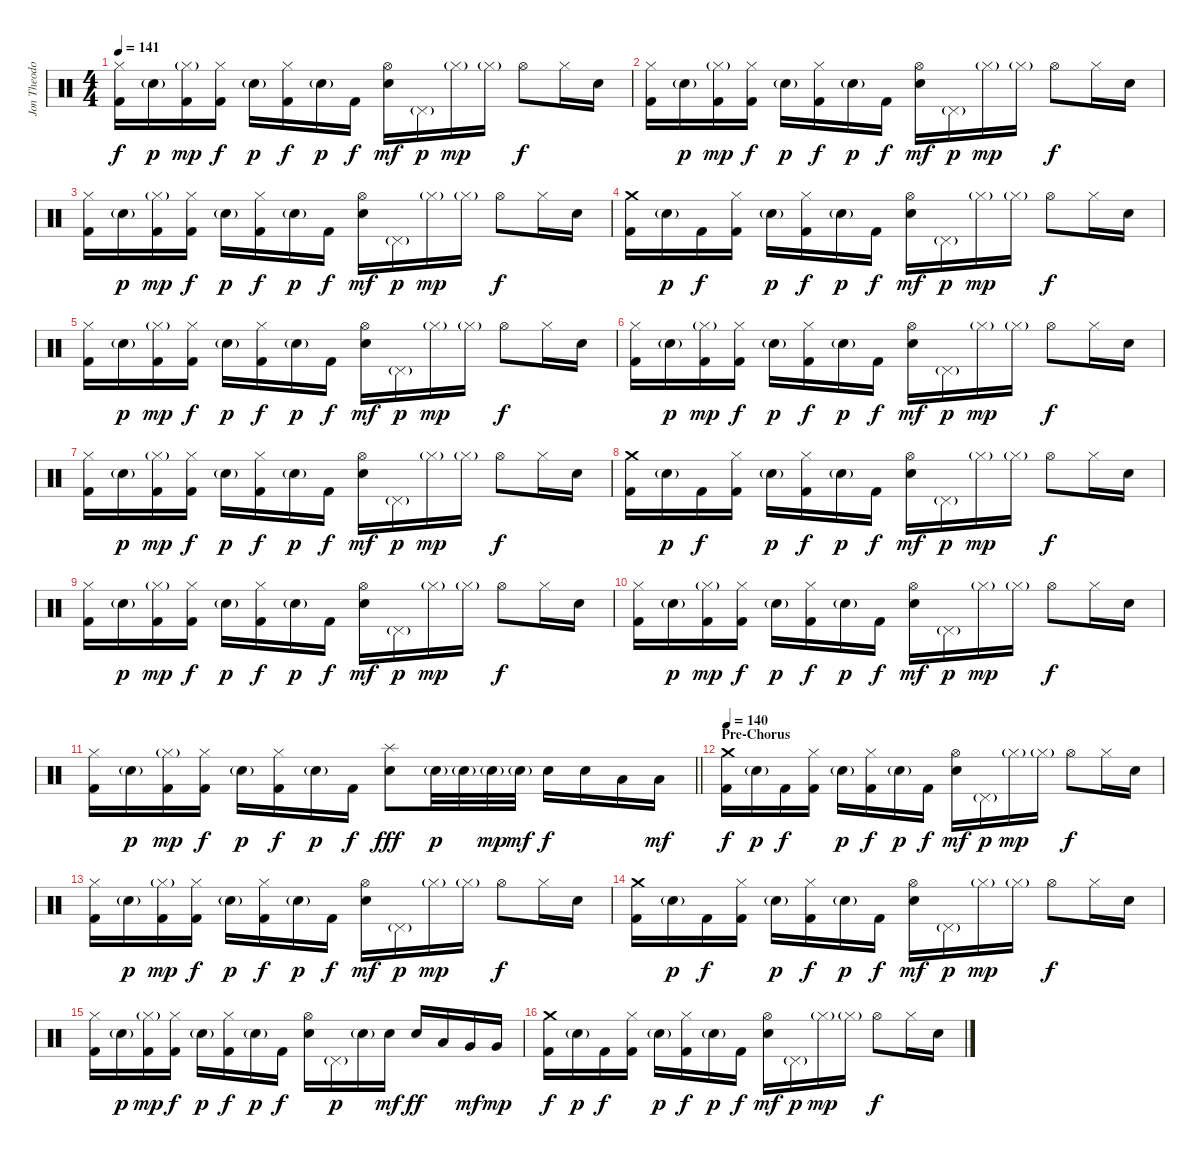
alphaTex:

\track ("Jon Theodore - Drums" "Jon Theodo") {instrument percussion}
\staff {score}
\articulation defaults
\ts (4 4)
\tempo 141
\clef neutral
\ks c
("Hi-Hat (closed)" "Kick (hit) 2").16{dy f} "Electric Snare (hit)"{g}.16{dy p} ("Hi-Hat (closed)"{g} "Kick (hit) 2").16{dy mp} ("Hi-Hat (closed)" "Kick (hit) 2").16{dy f} "Electric Snare (hit)"{g}.16{dy p} ("Hi-Hat (closed)" "Kick (hit) 2").16{dy f} "Electric Snare (hit)"{g}.16{dy p} "Kick (hit) 2".16{dy f} ("Hi-Hat (open)" "Electric Snare (hit)").16{dy mf} "Pedal Hi-Hat (hit)"{g}.16{dy p} "Hi-Hat (closed)"{g}.16{dy mp} "Hi-Hat (closed)"{g}.16 "Hi-Hat (open)".8{dy f} "Hi-Hat (closed)".16 "Electric Snare (hit)".16 |
("Hi-Hat (closed)" "Kick (hit) 2").16 "Electric Snare (hit)"{g}.16{dy p} ("Hi-Hat (closed)"{g} "Kick (hit) 2").16{dy mp} ("Hi-Hat (closed)" "Kick (hit) 2").16{dy f} "Electric Snare (hit)"{g}.16{dy p} ("Hi-Hat (closed)" "Kick (hit) 2").16{dy f} "Electric Snare (hit)"{g}.16{dy p} "Kick (hit) 2".16{dy f} ("Hi-Hat (open)" "Electric Snare (hit)").16{dy mf} "Pedal Hi-Hat (hit)"{g}.16{dy p} "Hi-Hat (closed)"{g}.16{dy mp} "Hi-Hat (closed)"{g}.16 "Hi-Hat (open)".8{dy f} "Hi-Hat (closed)".16 "Electric Snare (hit)".16 |
("Hi-Hat (closed)" "Kick (hit) 2").16 "Electric Snare (hit)"{g}.16{dy p} ("Hi-Hat (closed)"{g} "Kick (hit) 2").16{dy mp} ("Hi-Hat (closed)" "Kick (hit) 2").16{dy f} "Electric Snare (hit)"{g}.16{dy p} ("Hi-Hat (closed)" "Kick (hit) 2").16{dy f} "Electric Snare (hit)"{g}.16{dy p} "Kick (hit) 2".16{dy f} ("Hi-Hat (open)" "Electric Snare (hit)").16{dy mf} "Pedal Hi-Hat (hit)"{g}.16{dy p} "Hi-Hat (closed)"{g}.16{dy mp} "Hi-Hat (closed)"{g}.16 "Hi-Hat (open)".8{dy f} "Hi-Hat (closed)".16 "Electric Snare (hit)".16 |
("Crash medium (hit)" "Kick (hit) 2").16 "Electric Snare (hit)"{g}.16{dy p} "Kick (hit) 2".16{dy f} ("Hi-Hat (closed)" "Kick (hit) 2").16 "Electric Snare (hit)"{g}.16{dy p} ("Hi-Hat (closed)" "Kick (hit) 2").16{dy f} "Electric Snare (hit)"{g}.16{dy p} "Kick (hit) 2".16{dy f} ("Hi-Hat (open)" "Electric Snare (hit)").16{dy mf} "Pedal Hi-Hat (hit)"{g}.16{dy p} "Hi-Hat (closed)"{g}.16{dy mp} "Hi-Hat (closed)"{g}.16 "Hi-Hat (open)".8{dy f} "Hi-Hat (closed)".16 "Electric Snare (hit)".16 |
("Hi-Hat (closed)" "Kick (hit) 2").16 "Electric Snare (hit)"{g}.16{dy p} ("Hi-Hat (closed)"{g} "Kick (hit) 2").16{dy mp} ("Hi-Hat (closed)" "Kick (hit) 2").16{dy f} "Electric Snare (hit)"{g}.16{dy p} ("Hi-Hat (closed)" "Kick (hit) 2").16{dy f} "Electric Snare (hit)"{g}.16{dy p} "Kick (hit) 2".16{dy f} ("Hi-Hat (open)" "Electric Snare (hit)").16{dy mf} "Pedal Hi-Hat (hit)"{g}.16{dy p} "Hi-Hat (closed)"{g}.16{dy mp} "Hi-Hat (closed)"{g}.16 "Hi-Hat (open)".8{dy f} "Hi-Hat (closed)".16 "Electric Snare (hit)".16 |
("Hi-Hat (closed)" "Kick (hit) 2").16 "Electric Snare (hit)"{g}.16{dy p} ("Hi-Hat (closed)"{g} "Kick (hit) 2").16{dy mp} ("Hi-Hat (closed)" "Kick (hit) 2").16{dy f} "Electric Snare (hit)"{g}.16{dy p} ("Hi-Hat (closed)" "Kick (hit) 2").16{dy f} "Electric Snare (hit)"{g}.16{dy p} "Kick (hit) 2".16{dy f} ("Hi-Hat (open)" "Electric Snare (hit)").16{dy mf} "Pedal Hi-Hat (hit)"{g}.16{dy p} "Hi-Hat (closed)"{g}.16{dy mp} "Hi-Hat (closed)"{g}.16 "Hi-Hat (open)".8{dy f} "Hi-Hat (closed)".16 "Electric Snare (hit)".16 |
("Hi-Hat (closed)" "Kick (hit) 2").16 "Electric Snare (hit)"{g}.16{dy p} ("Hi-Hat (closed)"{g} "Kick (hit) 2").16{dy mp} ("Hi-Hat (closed)" "Kick (hit) 2").16{dy f} "Electric Snare (hit)"{g}.16{dy p} ("Hi-Hat (closed)" "Kick (hit) 2").16{dy f} "Electric Snare (hit)"{g}.16{dy p} "Kick (hit) 2".16{dy f} ("Hi-Hat (open)" "Electric Snare (hit)").16{dy mf} "Pedal Hi-Hat (hit)"{g}.16{dy p} "Hi-Hat (closed)"{g}.16{dy mp} "Hi-Hat (closed)"{g}.16 "Hi-Hat (open)".8{dy f} "Hi-Hat (closed)".16 "Electric Snare (hit)".16 |
("Crash medium (hit)" "Kick (hit) 2").16 "Electric Snare (hit)"{g}.16{dy p} "Kick (hit) 2".16{dy f} ("Hi-Hat (closed)" "Kick (hit) 2").16 "Electric Snare (hit)"{g}.16{dy p} ("Hi-Hat (closed)" "Kick (hit) 2").16{dy f} "Electric Snare (hit)"{g}.16{dy p} "Kick (hit) 2".16{dy f} ("Hi-Hat (open)" "Electric Snare (hit)").16{dy mf} "Pedal Hi-Hat (hit)"{g}.16{dy p} "Hi-Hat (closed)"{g}.16{dy mp} "Hi-Hat (closed)"{g}.16 "Hi-Hat (open)".8{dy f} "Hi-Hat (closed)".16 "Electric Snare (hit)".16 |
("Hi-Hat (closed)" "Kick (hit) 2").16 "Electric Snare (hit)"{g}.16{dy p} ("Hi-Hat (closed)"{g} "Kick (hit) 2").16{dy mp} ("Hi-Hat (closed)" "Kick (hit) 2").16{dy f} "Electric Snare (hit)"{g}.16{dy p} ("Hi-Hat (closed)" "Kick (hit) 2").16{dy f} "Electric Snare (hit)"{g}.16{dy p} "Kick (hit) 2".16{dy f} ("Hi-Hat (open)" "Electric Snare (hit)").16{dy mf} "Pedal Hi-Hat (hit)"{g}.16{dy p} "Hi-Hat (closed)"{g}.16{dy mp} "Hi-Hat (closed)"{g}.16 "Hi-Hat (open)".8{dy f} "Hi-Hat (closed)".16 "Electric Snare (hit)".16 |
("Hi-Hat (closed)" "Kick (hit) 2").16 "Electric Snare (hit)"{g}.16{dy p} ("Hi-Hat (closed)"{g} "Kick (hit) 2").16{dy mp} ("Hi-Hat (closed)" "Kick (hit) 2").16{dy f} "Electric Snare (hit)"{g}.16{dy p} ("Hi-Hat (closed)" "Kick (hit) 2").16{dy f} "Electric Snare (hit)"{g}.16{dy p} "Kick (hit) 2".16{dy f} ("Hi-Hat (open)" "Electric Snare (hit)").16{dy mf} "Pedal Hi-Hat (hit)"{g}.16{dy p} "Hi-Hat (closed)"{g}.16{dy mp} "Hi-Hat (closed)"{g}.16 "Hi-Hat (open)".8{dy f} "Hi-Hat (closed)".16 "Electric Snare (hit)".16 |
\barLineRight lightlight
("Hi-Hat (closed)" "Kick (hit) 2").16 "Electric Snare (hit)"{g}.16{dy p} ("Hi-Hat (closed)"{g} "Kick (hit) 2").16{dy mp} ("Hi-Hat (closed)" "Kick (hit) 2").16{dy f} "Electric Snare (hit)"{g}.16{dy p} ("Hi-Hat (closed)" "Kick (hit) 2").16{dy f} "Electric Snare (hit)"{g}.16{dy p} "Kick (hit) 2".16{dy f} ("Splash (hit)" "Electric Snare (hit)").8{dy fff} "Electric Snare (hit)"{g}.32{dy p} "Electric Snare (hit)"{g}.32 "Electric Snare (hit)"{g}.32{dy mp} "Electric Snare (hit)"{g}.32{dy mf} "Electric Snare (hit)".16{dy f} "Electric Snare (hit)".16 "Low Tom (hit)".16 "Low Tom (hit)".16{dy mf} |
\section ("" "Pre-Chorus")
\tempo 140
("Crash medium (hit)" "Kick (hit) 2").16{dy f} "Electric Snare (hit)"{g}.16{dy p} "Kick (hit) 2".16{dy f} ("Hi-Hat (closed)" "Kick (hit) 2").16 "Electric Snare (hit)"{g}.16{dy p} ("Hi-Hat (closed)" "Kick (hit) 2").16{dy f} "Electric Snare (hit)"{g}.16{dy p} "Kick (hit) 2".16{dy f} ("Hi-Hat (open)" "Electric Snare (hit)").16{dy mf} "Pedal Hi-Hat (hit)"{g}.16{dy p} "Hi-Hat (closed)"{g}.16{dy mp} "Hi-Hat (closed)"{g}.16 "Hi-Hat (open)".8{dy f} "Hi-Hat (closed)".16 "Electric Snare (hit)".16 |
("Hi-Hat (closed)" "Kick (hit) 2").16 "Electric Snare (hit)"{g}.16{dy p} ("Hi-Hat (closed)"{g} "Kick (hit) 2").16{dy mp} ("Hi-Hat (closed)" "Kick (hit) 2").16{dy f} "Electric Snare (hit)"{g}.16{dy p} ("Hi-Hat (closed)" "Kick (hit) 2").16{dy f} "Electric Snare (hit)"{g}.16{dy p} "Kick (hit) 2".16{dy f} ("Hi-Hat (open)" "Electric Snare (hit)").16{dy mf} "Pedal Hi-Hat (hit)"{g}.16{dy p} "Hi-Hat (closed)"{g}.16{dy mp} "Hi-Hat (closed)"{g}.16 "Hi-Hat (open)".8{dy f} "Hi-Hat (closed)".16 "Electric Snare (hit)".16 |
("Crash medium (hit)" "Kick (hit) 2").16 "Electric Snare (hit)"{g}.16{dy p} "Kick (hit) 2".16{dy f} ("Hi-Hat (closed)" "Kick (hit) 2").16 "Electric Snare (hit)"{g}.16{dy p} ("Hi-Hat (closed)" "Kick (hit) 2").16{dy f} "Electric Snare (hit)"{g}.16{dy p} "Kick (hit) 2".16{dy f} ("Hi-Hat (open)" "Electric Snare (hit)").16{dy mf} "Pedal Hi-Hat (hit)"{g}.16{dy p} "Hi-Hat (closed)"{g}.16{dy mp} "Hi-Hat (closed)"{g}.16 "Hi-Hat (open)".8{dy f} "Hi-Hat (closed)".16 "Electric Snare (hit)".16 |
("Hi-Hat (closed)" "Kick (hit) 2").16 "Electric Snare (hit)"{g}.16{dy p} ("Hi-Hat (closed)"{g} "Kick (hit) 2").16{dy mp} ("Hi-Hat (closed)" "Kick (hit) 2").16{dy f} "Electric Snare (hit)"{g}.16{dy p} ("Hi-Hat (closed)" "Kick (hit) 2").16{dy f} "Electric Snare (hit)"{g}.16{dy p} "Kick (hit) 2".16{dy f} ("Hi-Hat (open)" "Electric Snare (hit)").16 "Pedal Hi-Hat (hit)"{g}.16{dy p} "Electric Snare (hit)"{g}.16 "Electric Snare (hit)".16{dy mf} "Electric Snare (hit)".16{dy ff} "Low Tom (hit)".16 "Very Low Tom (hit)".16{dy mf} "Very Low Tom (hit)".16{dy mp} |
("Crash medium (hit)" "Kick (hit) 2").16{dy f} "Electric Snare (hit)"{g}.16{dy p} "Kick (hit) 2".16{dy f} ("Hi-Hat (closed)" "Kick (hit) 2").16 "Electric Snare (hit)"{g}.16{dy p} ("Hi-Hat (closed)" "Kick (hit) 2").16{dy f} "Electric Snare (hit)"{g}.16{dy p} "Kick (hit) 2".16{dy f} ("Hi-Hat (open)" "Electric Snare (hit)").16{dy mf} "Pedal Hi-Hat (hit)"{g}.16{dy p} "Hi-Hat (closed)"{g}.16{dy mp} "Hi-Hat (closed)"{g}.16 "Hi-Hat (open)".8{dy f} "Hi-Hat (closed)".16 "Electric Snare (hit)".16
